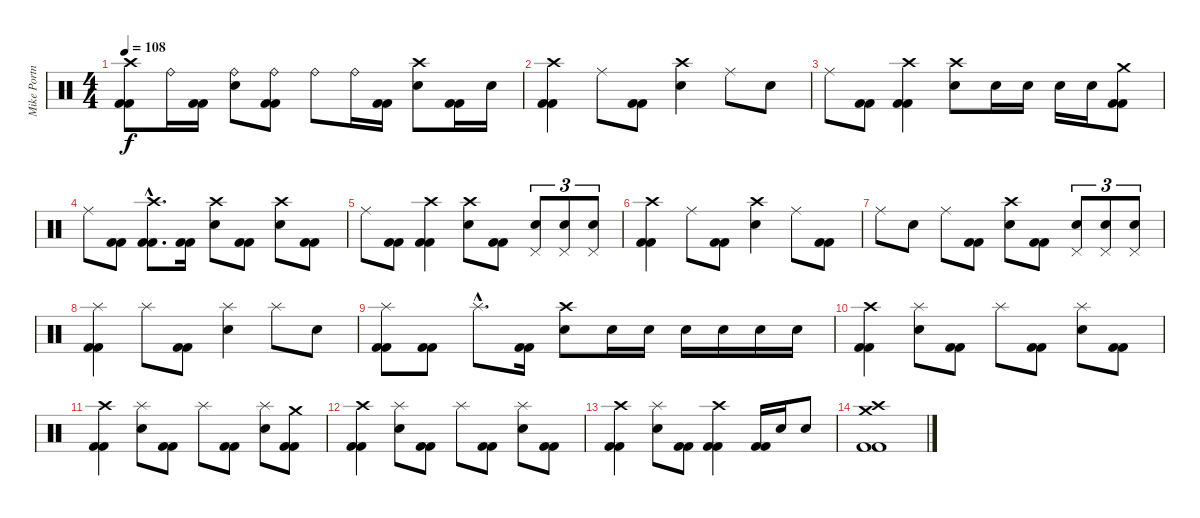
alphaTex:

\track ("Mike Portnoy - Drum" "Mike Portn") {instrument percussion}
\staff {score}
\articulation defaults
\ts (4 4)
\tempo 108
\clef neutral
\ks c
("Crash high (hit)" "Kick (hit) 2" "Kick (hit) 2").8{dy f} "Ride (bell)".16 ("Kick (hit) 2" "Kick (hit) 2").16 ("Ride (bell)" "Snare (hit) 2").8 ("Ride (bell)" "Kick (hit) 2" "Kick (hit) 2").8 "Ride (bell)".8 "Ride (bell)".16 ("Kick (hit) 2" "Kick (hit) 2").16 ("Crash high (hit)" "Snare (hit) 2").8 ("Kick (hit) 2" "Kick (hit) 2").16 "Snare (hit) 2".16 |
("Crash high (hit)" "Kick (hit) 2" "Kick (hit) 2").4 "Ride (middle)".8 ("Kick (hit) 2" "Kick (hit) 2").8 ("Crash high (hit)" "Snare (hit) 2").4 "Ride (middle)".8 "Snare (hit) 2".8 |
"Ride (middle)".8 ("Kick (hit) 2" "Kick (hit) 2").8 ("Crash high (hit)" "Kick (hit) 2" "Kick (hit) 2").4 ("Crash high (hit)" "Snare (hit) 2").8 "Snare (hit) 2".16 "Snare (hit) 2".16 "Snare (hit) 2".16 "Snare (hit) 2".16 ("Crash medium (hit)" "Kick (hit) 2" "Kick (hit) 2").8 |
"Ride (middle)".8 ("Kick (hit) 2" "Kick (hit) 2").8 ("Crash high (hit)"{hac} "Kick (hit) 2"{hac} "Kick (hit) 2"{hac}).8{d} ("Kick (hit) 2" "Kick (hit) 2").16 ("Crash high (hit)" "Snare (hit) 2").8 ("Kick (hit) 2" "Kick (hit) 2").8 ("Crash high (hit)" "Snare (hit) 2").8 ("Kick (hit) 2" "Kick (hit) 2").8 |
"Ride (middle)".8 ("Kick (hit) 2" "Kick (hit) 2").8 ("Crash high (hit)" "Kick (hit) 2" "Kick (hit) 2").4 ("Crash high (hit)" "Snare (hit) 2").8 ("Kick (hit) 2" "Kick (hit) 2").8 ("Pedal Hi-Hat (hit)" "Snare (hit) 2").8{tu (3 2)} ("Pedal Hi-Hat (hit)" "Snare (hit) 2").8{tu (3 2)} ("Pedal Hi-Hat (hit)" "Snare (hit) 2").8{tu (3 2)} |
("Crash high (hit)" "Kick (hit) 2" "Kick (hit) 2").4 "Ride (middle)".8 ("Kick (hit) 2" "Kick (hit) 2").8 ("Crash high (hit)" "Snare (hit) 2").4 "Ride (middle)".8 ("Kick (hit) 2" "Kick (hit) 2").8 |
"Ride (middle)".8 "Snare (hit) 2".8 "Ride (middle)".8 ("Kick (hit) 2" "Kick (hit) 2").8 ("Crash high (hit)" "Snare (hit) 2").8 ("Kick (hit) 2" "Kick (hit) 2").8 ("Pedal Hi-Hat (hit)" "Snare (hit) 2").8{tu (3 2)} ("Pedal Hi-Hat (hit)" "Snare (hit) 2").8{tu (3 2)} ("Pedal Hi-Hat (hit)" "Snare (hit) 2").8{tu (3 2)} |
("Splash (hit)" "Kick (hit) 2" "Kick (hit) 2").4 "Splash (hit)".8 ("Kick (hit) 2" "Kick (hit) 2").8 ("Splash (hit)" "Snare (hit) 2").4 "Splash (hit)".8 "Snare (hit) 2".8 |
("Splash (hit)" "Kick (hit) 2" "Kick (hit) 2").8 ("Kick (hit) 2" "Kick (hit) 2").8 "Splash (hit)"{hac}.8{d} ("Kick (hit) 2" "Kick (hit) 2").16 ("Crash high (hit)" "Snare (hit) 2").8 "Snare (hit) 2".16 "Snare (hit) 2".16 "Snare (hit) 2".16 "Snare (hit) 2".16 "Snare (hit) 2".16 "Snare (hit) 2".16 |
("Crash high (hit)" "Kick (hit) 2" "Kick (hit) 2").4 ("Splash (hit)" "Snare (hit) 2").8 ("Kick (hit) 2" "Kick (hit) 2").8 "Splash (hit)".8 ("Kick (hit) 2" "Kick (hit) 2").8 ("Splash (hit)" "Snare (hit) 2").8 ("Kick (hit) 2" "Kick (hit) 2").8 |
("Crash high (hit)" "Kick (hit) 2" "Kick (hit) 2").4 ("Splash (hit)" "Snare (hit) 2").8 ("Kick (hit) 2" "Kick (hit) 2").8 "Splash (hit)".8 ("Kick (hit) 2" "Kick (hit) 2").8 ("Splash (hit)" "Snare (hit) 2").8 ("Crash medium (hit)" "Kick (hit) 2" "Kick (hit) 2").8 |
("Crash high (hit)" "Kick (hit) 2" "Kick (hit) 2").4 ("Splash (hit)" "Snare (hit) 2").8 ("Kick (hit) 2" "Kick (hit) 2").8 "Splash (hit)".8 ("Kick (hit) 2" "Kick (hit) 2").8 ("Splash (hit)" "Snare (hit) 2").8 ("Kick (hit) 2" "Kick (hit) 2").8 |
("Crash high (hit)" "Kick (hit) 2" "Kick (hit) 2").4 ("Splash (hit)" "Snare (hit) 2").8 ("Kick (hit) 2" "Kick (hit) 2").8 ("Crash high (hit)" "Kick (hit) 2" "Kick (hit) 2").4 ("Kick (hit) 2" "Kick (hit) 2").16 "Snare (hit) 2".16 "Snare (hit) 2".8 |
("Crash high (hit)" "Crash medium (hit)" "Kick (hit) 2" "Kick (hit) 2").1
